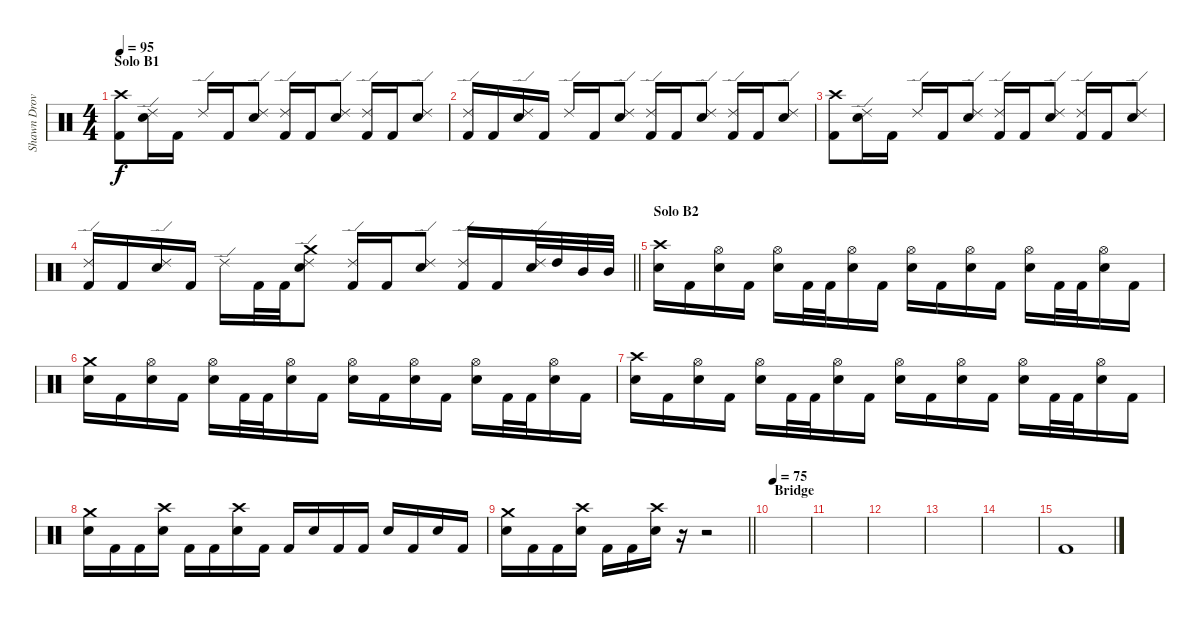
\track ("Shawn Drover" "Shawn Drov") {instrument percussion}
\staff {score}
\articulation defaults
\ts (4 4)
\section ("" "Solo B1")
\tempo 95
\clef neutral
\ks c
("Crash high (hit)" "Kick (hit) 2").8{dy f} ("Ride (edge) 2" "Electric Snare (hit)").16 "Kick (hit) 2".16 "Ride (edge) 2".16 "Kick (hit) 2".16 ("Ride (edge) 2" "Electric Snare (hit)").8 ("Ride (edge) 2" "Kick (hit) 2").16 "Kick (hit) 2".16 ("Ride (edge) 2" "Electric Snare (hit)").8 ("Ride (edge) 2" "Kick (hit) 2").16 "Kick (hit) 2".16 ("Ride (edge) 2" "Electric Snare (hit)").8 |
("Ride (edge) 2" "Kick (hit) 2").16 "Kick (hit) 2".16 ("Ride (edge) 2" "Electric Snare (hit)").16 "Kick (hit) 2".16 "Ride (edge) 2".16 "Kick (hit) 2".16 ("Ride (edge) 2" "Electric Snare (hit)").8 ("Ride (edge) 2" "Kick (hit) 2").16 "Kick (hit) 2".16 ("Ride (edge) 2" "Electric Snare (hit)").8 ("Ride (edge) 2" "Kick (hit) 2").16 "Kick (hit) 2".16 ("Ride (edge) 2" "Electric Snare (hit)").8 |
("Crash high (hit)" "Kick (hit) 2").8 ("Ride (edge) 2" "Electric Snare (hit)").16 "Kick (hit) 2".16 "Ride (edge) 2".16 "Kick (hit) 2".16 ("Ride (edge) 2" "Electric Snare (hit)").8 ("Ride (edge) 2" "Kick (hit) 2").16 "Kick (hit) 2".16 ("Ride (edge) 2" "Electric Snare (hit)").8 ("Ride (edge) 2" "Kick (hit) 2").16 "Kick (hit) 2".16 ("Ride (edge) 2" "Electric Snare (hit)").8 |
\barLineRight lightlight
("Ride (edge) 2" "Kick (hit) 2").16 "Kick (hit) 2".16 ("Ride (edge) 2" "Electric Snare (hit)").16 "Kick (hit) 2".16 "Ride (edge) 2".16 "Kick (hit) 2".32 "Kick (hit) 2".32 ("Crash medium (hit)" "Ride (edge) 2" "Electric Snare (hit)").8 ("Ride (edge) 2" "Kick (hit) 2").16 "Kick (hit) 2".16 ("Ride (edge) 2" "Electric Snare (hit)").8 ("Ride (edge) 2" "Kick (hit) 2").16 "Kick (hit) 2".16 ("Ride (edge) 2" "Electric Snare (hit)").32 "High Tom (hit)".32 "Mid Tom (hit)".32 "Mid Tom (hit)".32 |
\section ("" "Solo B2")
("Crash high (hit)" "Electric Snare (hit)").16 "Kick (hit) 2".16 ("Hi-Hat (open)" "Electric Snare (hit)").16 "Kick (hit) 2".16 ("Hi-Hat (open)" "Electric Snare (hit)").16 "Kick (hit) 2".32 "Kick (hit) 2".32 ("Hi-Hat (open)" "Electric Snare (hit)").16 "Kick (hit) 2".16 ("Hi-Hat (open)" "Electric Snare (hit)").16 "Kick (hit) 2".16 ("Hi-Hat (open)" "Electric Snare (hit)").16 "Kick (hit) 2".16 ("Hi-Hat (open)" "Electric Snare (hit)").16 "Kick (hit) 2".32 "Kick (hit) 2".32 ("Hi-Hat (open)" "Electric Snare (hit)").16 "Kick (hit) 2".16 |
("Crash medium (hit)" "Electric Snare (hit)").16 "Kick (hit) 2".16 ("Hi-Hat (open)" "Electric Snare (hit)").16 "Kick (hit) 2".16 ("Hi-Hat (open)" "Electric Snare (hit)").16 "Kick (hit) 2".32 "Kick (hit) 2".32 ("Hi-Hat (open)" "Electric Snare (hit)").16 "Kick (hit) 2".16 ("Hi-Hat (open)" "Electric Snare (hit)").16 "Kick (hit) 2".16 ("Hi-Hat (open)" "Electric Snare (hit)").16 "Kick (hit) 2".16 ("Hi-Hat (open)" "Electric Snare (hit)").16 "Kick (hit) 2".32 "Kick (hit) 2".32 ("Hi-Hat (open)" "Electric Snare (hit)").16 "Kick (hit) 2".16 |
("Crash high (hit)" "Electric Snare (hit)").16 "Kick (hit) 2".16 ("Hi-Hat (open)" "Electric Snare (hit)").16 "Kick (hit) 2".16 ("Hi-Hat (open)" "Electric Snare (hit)").16 "Kick (hit) 2".32 "Kick (hit) 2".32 ("Hi-Hat (open)" "Electric Snare (hit)").16 "Kick (hit) 2".16 ("Hi-Hat (open)" "Electric Snare (hit)").16 "Kick (hit) 2".16 ("Hi-Hat (open)" "Electric Snare (hit)").16 "Kick (hit) 2".16 ("Hi-Hat (open)" "Electric Snare (hit)").16 "Kick (hit) 2".32 "Kick (hit) 2".32 ("Hi-Hat (open)" "Electric Snare (hit)").16 "Kick (hit) 2".16 |
("Crash medium (hit)" "Electric Snare (hit)").16 "Kick (hit) 2".16 "Kick (hit) 2".16 ("Crash high (hit)" "Electric Snare (hit)").16 "Kick (hit) 2".16 "Kick (hit) 2".16 ("Crash high (hit)" "Electric Snare (hit)").16 "Kick (hit) 2".16 "Kick (hit) 2".16 "Electric Snare (hit)".16 "Kick (hit) 2".16 "Kick (hit) 2".16 "Electric Snare (hit)".16 "Kick (hit) 2".16 "Electric Snare (hit)".16 "Kick (hit) 2".16 |
\barLineRight lightlight
("Crash medium (hit)" "Electric Snare (hit)").16 "Kick (hit) 2".16 "Kick (hit) 2".16 ("Crash high (hit)" "Electric Snare (hit)").16 "Kick (hit) 2".16 "Kick (hit) 2".16 ("Crash high (hit)" "Electric Snare (hit)").16 r.16 r.2 |
\section ("" "Bridge")
\tempo 75
|
|
|
|
|
"Kick (hit) 2".1
